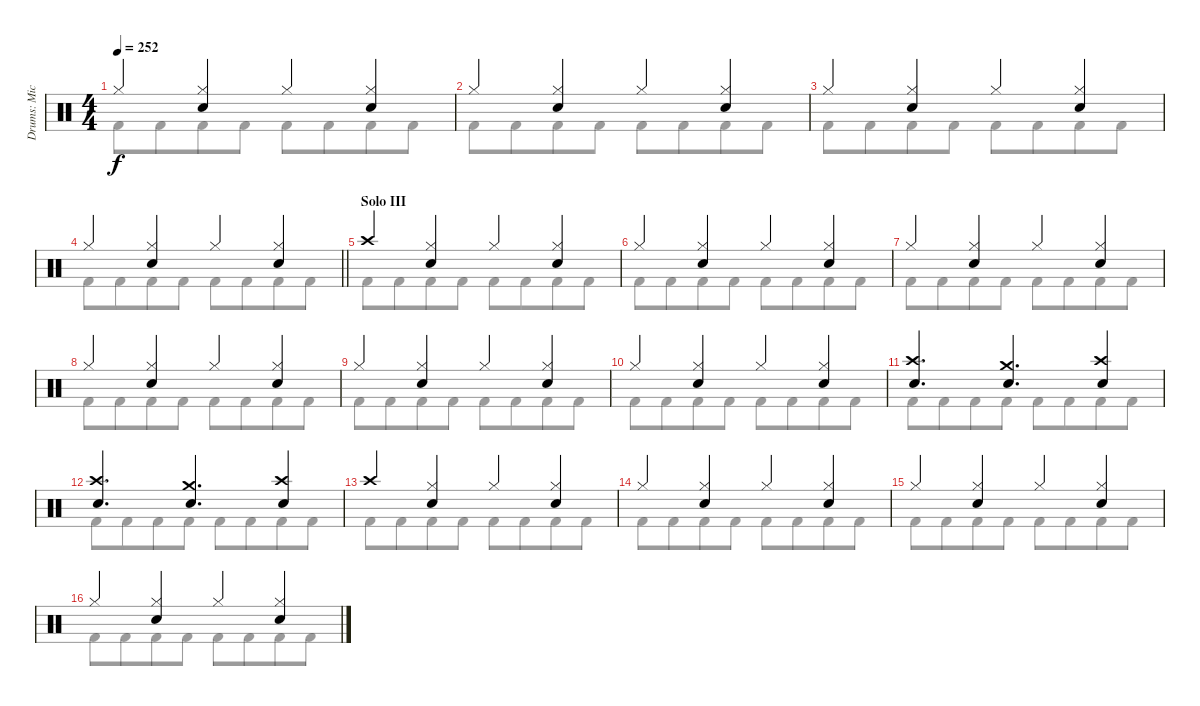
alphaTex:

\track ("Drums: Mick" "Drums: Mic") {instrument percussion}
\staff {score}
\articulation defaults
\voice
\ts (4 4)
\tempo 252
\clef neutral
\ks c "Hi-Hat (closed)".4{dy f}
("Hi-Hat (closed)" "Snare (hit) 2").4 "Hi-Hat (closed)".4 ("Hi-Hat (closed)" "Snare (hit) 2").4 |
"Hi-Hat (closed)".4 ("Hi-Hat (closed)" "Snare (hit) 2").4 "Hi-Hat (closed)".4 ("Hi-Hat (closed)" "Snare (hit) 2").4 |
"Hi-Hat (closed)".4 ("Hi-Hat (closed)" "Snare (hit) 2").4 "Hi-Hat (closed)".4 ("Hi-Hat (closed)" "Snare (hit) 2").4 |
\barLineRight lightlight "Hi-Hat (closed)".4
("Hi-Hat (closed)" "Snare (hit) 2").4 "Hi-Hat (closed)".4 ("Hi-Hat (closed)" "Snare (hit) 2").4 |
\section ("" "Solo III")
"Crash high (hit)".4 ("Hi-Hat (closed)" "Snare (hit) 2").4 "Hi-Hat (closed)".4 ("Hi-Hat (closed)" "Snare (hit) 2").4 |
"Hi-Hat (closed)".4 ("Hi-Hat (closed)" "Snare (hit) 2").4 "Hi-Hat (closed)".4 ("Hi-Hat (closed)" "Snare (hit) 2").4 |
"Hi-Hat (closed)".4 ("Hi-Hat (closed)" "Snare (hit) 2").4 "Hi-Hat (closed)".4 ("Hi-Hat (closed)" "Snare (hit) 2").4 |
"Hi-Hat (closed)".4 ("Hi-Hat (closed)" "Snare (hit) 2").4 "Hi-Hat (closed)".4 ("Hi-Hat (closed)" "Snare (hit) 2").4 |
"Hi-Hat (closed)".4 ("Hi-Hat (closed)" "Snare (hit) 2").4 "Hi-Hat (closed)".4 ("Hi-Hat (closed)" "Snare (hit) 2").4 |
"Hi-Hat (closed)".4 ("Hi-Hat (closed)" "Snare (hit) 2").4 "Hi-Hat (closed)".4 ("Hi-Hat (closed)" "Snare (hit) 2").4 |
("Crash high (hit)" "Snare (hit) 2").4{d} ("Crash medium (hit)" "Snare (hit) 2").4{d} ("Crash high (hit)" "Snare (hit) 2").4 |
("Crash high (hit)" "Snare (hit) 2").4{d} ("Crash medium (hit)" "Snare (hit) 2").4{d} ("Crash high (hit)" "Snare (hit) 2").4 |
"Crash high (hit)".4 ("Hi-Hat (closed)" "Snare (hit) 2").4 "Hi-Hat (closed)".4 ("Hi-Hat (closed)" "Snare (hit) 2").4 |
"Hi-Hat (closed)".4 ("Hi-Hat (closed)" "Snare (hit) 2").4 "Hi-Hat (closed)".4 ("Hi-Hat (closed)" "Snare (hit) 2").4 |
"Hi-Hat (closed)".4 ("Hi-Hat (closed)" "Snare (hit) 2").4 "Hi-Hat (closed)".4 ("Hi-Hat (closed)" "Snare (hit) 2").4 |
"Hi-Hat (closed)".4 ("Hi-Hat (closed)" "Snare (hit) 2").4 "Hi-Hat (closed)".4 ("Hi-Hat (closed)" "Snare (hit) 2").4
\voice
\clef neutral
\ottava regular
\simile none
\ks c "Kick (hit) 2".8{dy f} "Kick (hit) 2".8{beam merge} "Kick (hit) 2".8 "Kick (hit) 2".8 "Kick (hit) 2".8 "Kick (hit) 2".8{beam merge} "Kick (hit) 2".8 "Kick (hit) 2".8
|
"Kick (hit) 2".8 "Kick (hit) 2".8{beam merge} "Kick (hit) 2".8 "Kick (hit) 2".8 "Kick (hit) 2".8 "Kick (hit) 2".8{beam merge} "Kick (hit) 2".8 "Kick (hit) 2".8 |
"Kick (hit) 2".8 "Kick (hit) 2".8{beam merge} "Kick (hit) 2".8 "Kick (hit) 2".8 "Kick (hit) 2".8 "Kick (hit) 2".8{beam merge} "Kick (hit) 2".8 "Kick (hit) 2".8 |
\barLineRight lightlight "Kick (hit) 2".8 "Kick (hit) 2".8{beam merge} "Kick (hit) 2".8 "Kick (hit) 2".8 "Kick (hit) 2".8 "Kick (hit) 2".8{beam merge} "Kick (hit) 2".8 "Kick (hit) 2".8
|
"Kick (hit) 2".8 "Kick (hit) 2".8{beam merge} "Kick (hit) 2".8 "Kick (hit) 2".8 "Kick (hit) 2".8 "Kick (hit) 2".8{beam merge} "Kick (hit) 2".8 "Kick (hit) 2".8 |
"Kick (hit) 2".8 "Kick (hit) 2".8{beam merge} "Kick (hit) 2".8 "Kick (hit) 2".8 "Kick (hit) 2".8 "Kick (hit) 2".8{beam merge} "Kick (hit) 2".8 "Kick (hit) 2".8 |
"Kick (hit) 2".8 "Kick (hit) 2".8{beam merge} "Kick (hit) 2".8 "Kick (hit) 2".8 "Kick (hit) 2".8 "Kick (hit) 2".8{beam merge} "Kick (hit) 2".8 "Kick (hit) 2".8 |
"Kick (hit) 2".8 "Kick (hit) 2".8{beam merge} "Kick (hit) 2".8 "Kick (hit) 2".8 "Kick (hit) 2".8 "Kick (hit) 2".8{beam merge} "Kick (hit) 2".8 "Kick (hit) 2".8 |
"Kick (hit) 2".8 "Kick (hit) 2".8{beam merge} "Kick (hit) 2".8 "Kick (hit) 2".8 "Kick (hit) 2".8 "Kick (hit) 2".8{beam merge} "Kick (hit) 2".8 "Kick (hit) 2".8 |
"Kick (hit) 2".8 "Kick (hit) 2".8{beam merge} "Kick (hit) 2".8 "Kick (hit) 2".8 "Kick (hit) 2".8 "Kick (hit) 2".8{beam merge} "Kick (hit) 2".8 "Kick (hit) 2".8 |
"Kick (hit) 2".8 "Kick (hit) 2".8{beam merge} "Kick (hit) 2".8 "Kick (hit) 2".8 "Kick (hit) 2".8 "Kick (hit) 2".8{beam merge} "Kick (hit) 2".8 "Kick (hit) 2".8 |
"Kick (hit) 2".8 "Kick (hit) 2".8{beam merge} "Kick (hit) 2".8 "Kick (hit) 2".8 "Kick (hit) 2".8 "Kick (hit) 2".8{beam merge} "Kick (hit) 2".8 "Kick (hit) 2".8 |
"Kick (hit) 2".8 "Kick (hit) 2".8{beam merge} "Kick (hit) 2".8 "Kick (hit) 2".8 "Kick (hit) 2".8 "Kick (hit) 2".8{beam merge} "Kick (hit) 2".8 "Kick (hit) 2".8 |
"Kick (hit) 2".8 "Kick (hit) 2".8{beam merge} "Kick (hit) 2".8 "Kick (hit) 2".8 "Kick (hit) 2".8 "Kick (hit) 2".8{beam merge} "Kick (hit) 2".8 "Kick (hit) 2".8 |
"Kick (hit) 2".8 "Kick (hit) 2".8{beam merge} "Kick (hit) 2".8 "Kick (hit) 2".8 "Kick (hit) 2".8 "Kick (hit) 2".8{beam merge} "Kick (hit) 2".8 "Kick (hit) 2".8 |
"Kick (hit) 2".8 "Kick (hit) 2".8{beam merge} "Kick (hit) 2".8 "Kick (hit) 2".8 "Kick (hit) 2".8 "Kick (hit) 2".8{beam merge} "Kick (hit) 2".8 "Kick (hit) 2".8
